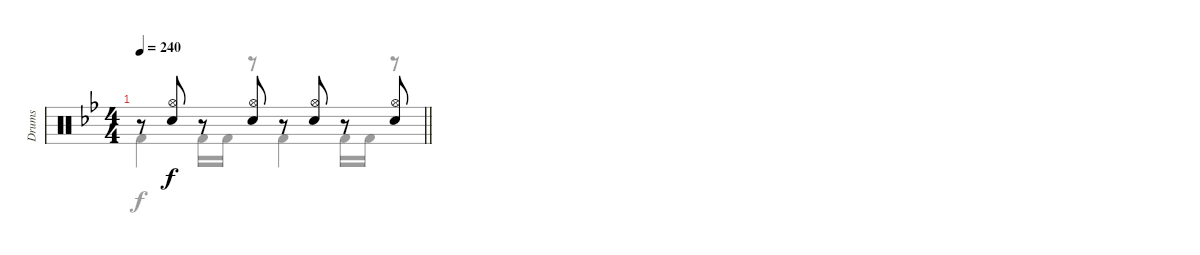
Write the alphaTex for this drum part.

\track ("Drums" "Drums") {instrument percussion}
\staff {score}
\articulation defaults
\voice
\ts (4 4)
\tempo 240
\clef neutral
\barLineRight lightlight
\ks bb
r.8{dy f} ("Hi-Hat (open)" "Snare (hit) 2").8 r.8 ("Hi-Hat (open)" "Snare (hit) 2").8 r.8 ("Hi-Hat (open)" "Snare (hit) 2").8 r.8 ("Hi-Hat (open)" "Snare (hit) 2").8
\voice
\clef neutral
\ottava regular
\simile none
\barLineRight lightlight
\ks bb "Kick (hit) 2".4{dy f} "Kick (hit) 2".16 "Kick (hit) 2".16
r.8 "Kick (hit) 2".4 "Kick (hit) 2".16 "Kick (hit) 2".16 r.8
